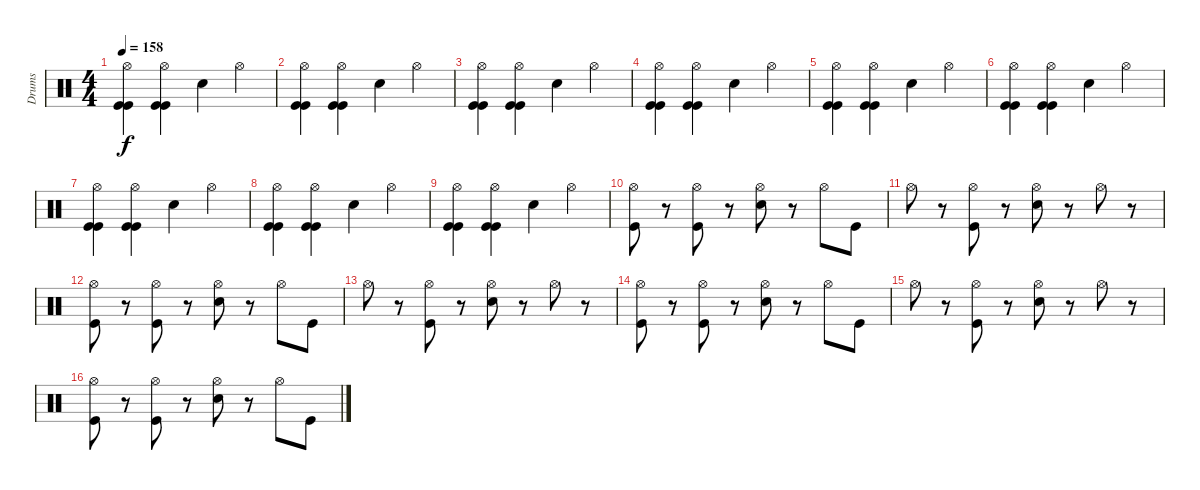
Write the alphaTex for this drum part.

\track ("Drums" "Drums") {instrument percussion}
\staff {score}
\articulation defaults
\ts (4 4)
\tempo 158
\clef neutral
\ks c
("Hi-Hat (open)" "Kick (hit)" "Kick (hit)").4{dy f} ("Hi-Hat (open)" "Kick (hit)" "Kick (hit)").4 "Electric Snare (hit)".4 "Hi-Hat (open)".4 |
("Hi-Hat (open)" "Kick (hit)" "Kick (hit)").4 ("Hi-Hat (open)" "Kick (hit)" "Kick (hit)").4 "Electric Snare (hit)".4 "Hi-Hat (open)".4 |
("Hi-Hat (open)" "Kick (hit)" "Kick (hit)").4 ("Hi-Hat (open)" "Kick (hit)" "Kick (hit)").4 "Electric Snare (hit)".4 "Hi-Hat (open)".4 |
("Hi-Hat (open)" "Kick (hit)" "Kick (hit)").4 ("Hi-Hat (open)" "Kick (hit)" "Kick (hit)").4 "Electric Snare (hit)".4 "Hi-Hat (open)".4 |
("Hi-Hat (open)" "Kick (hit)" "Kick (hit)").4 ("Hi-Hat (open)" "Kick (hit)" "Kick (hit)").4 "Electric Snare (hit)".4 "Hi-Hat (open)".4 |
("Hi-Hat (open)" "Kick (hit)" "Kick (hit)").4 ("Hi-Hat (open)" "Kick (hit)" "Kick (hit)").4 "Electric Snare (hit)".4 "Hi-Hat (open)".4 |
("Hi-Hat (open)" "Kick (hit)" "Kick (hit)").4 ("Hi-Hat (open)" "Kick (hit)" "Kick (hit)").4 "Electric Snare (hit)".4 "Hi-Hat (open)".4 |
("Hi-Hat (open)" "Kick (hit)" "Kick (hit)").4 ("Hi-Hat (open)" "Kick (hit)" "Kick (hit)").4 "Electric Snare (hit)".4 "Hi-Hat (open)".4 |
("Hi-Hat (open)" "Kick (hit)" "Kick (hit)").4 ("Hi-Hat (open)" "Kick (hit)" "Kick (hit)").4 "Electric Snare (hit)".4 "Hi-Hat (open)".4 |
("Hi-Hat (open)" "Kick (hit)").8 r.8 ("Hi-Hat (open)" "Kick (hit)").8 r.8 ("Hi-Hat (open)" "Snare (hit) 2").8 r.8 "Hi-Hat (open)".8 "Kick (hit)".8 |
"Hi-Hat (open)".8 r.8 ("Hi-Hat (open)" "Kick (hit)").8 r.8 ("Hi-Hat (open)" "Snare (hit) 2").8 r.8 "Hi-Hat (open)".8 r.8 |
("Hi-Hat (open)" "Kick (hit)").8 r.8 ("Hi-Hat (open)" "Kick (hit)").8 r.8 ("Hi-Hat (open)" "Snare (hit) 2").8 r.8 "Hi-Hat (open)".8 "Kick (hit)".8 |
"Hi-Hat (open)".8 r.8 ("Hi-Hat (open)" "Kick (hit)").8 r.8 ("Hi-Hat (open)" "Snare (hit) 2").8 r.8 "Hi-Hat (open)".8 r.8 |
("Hi-Hat (open)" "Kick (hit)").8 r.8 ("Hi-Hat (open)" "Kick (hit)").8 r.8 ("Hi-Hat (open)" "Snare (hit) 2").8 r.8 "Hi-Hat (open)".8 "Kick (hit)".8 |
"Hi-Hat (open)".8 r.8 ("Hi-Hat (open)" "Kick (hit)").8 r.8 ("Hi-Hat (open)" "Snare (hit) 2").8 r.8 "Hi-Hat (open)".8 r.8 |
("Hi-Hat (open)" "Kick (hit)").8 r.8 ("Hi-Hat (open)" "Kick (hit)").8 r.8 ("Hi-Hat (open)" "Snare (hit) 2").8 r.8 "Hi-Hat (open)".8 "Kick (hit)".8
